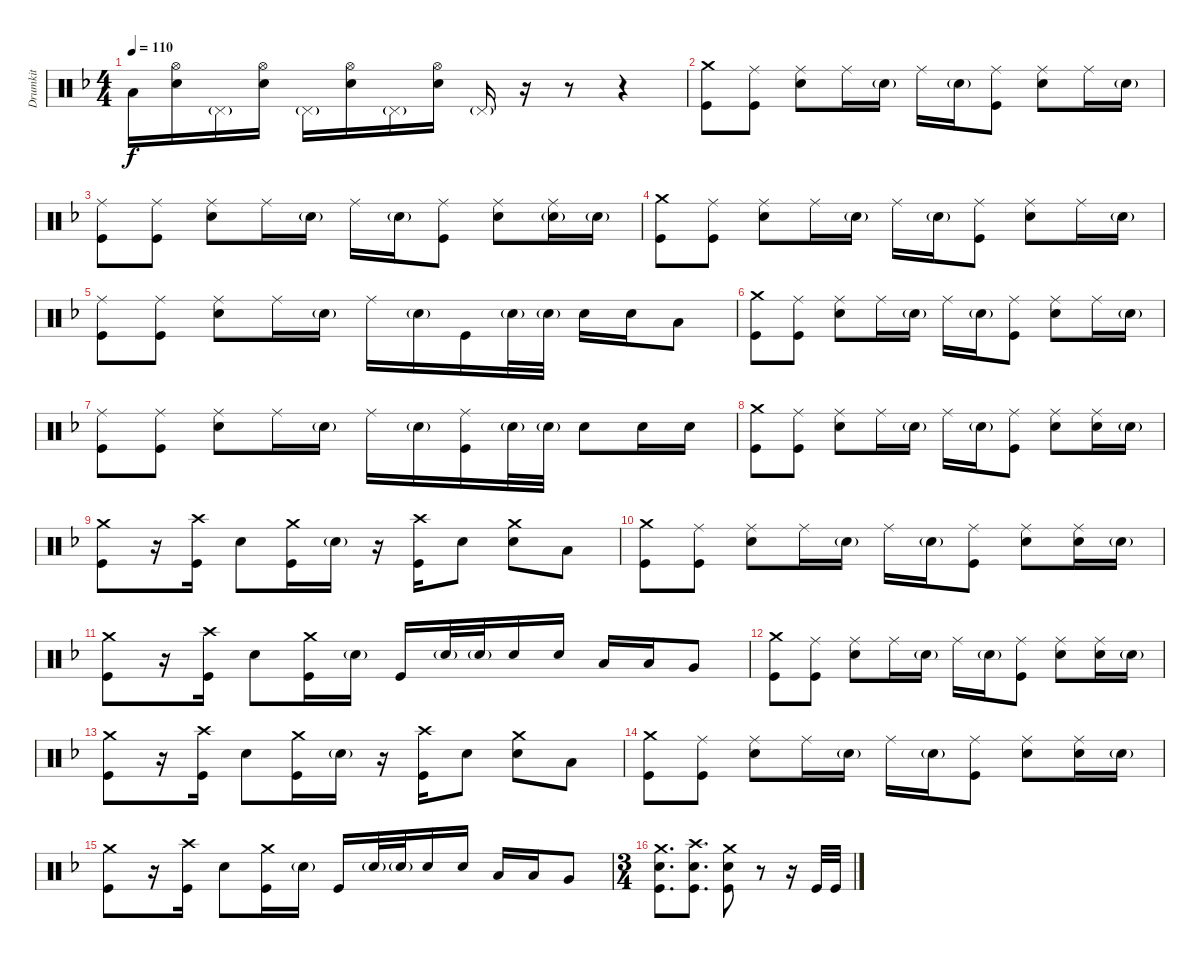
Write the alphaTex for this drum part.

\track ("Drumkit" "Drumkit") {instrument percussion}
\staff {score}
\articulation defaults
\ts (4 4)
\tempo 110
\clef neutral
\ks dminor "Low Floor Tom (hit)".16{dy f}
("Snare (hit) 2" "Hi-Hat (open)").16 "Pedal Hi-Hat (hit)"{g}.16 ("Snare (hit) 2" "Hi-Hat (open)").16 "Pedal Hi-Hat (hit)"{g}.16 ("Snare (hit) 2" "Hi-Hat (open)").16 "Pedal Hi-Hat (hit)"{g}.16 ("Snare (hit) 2" "Hi-Hat (open)").16 "Pedal Hi-Hat (hit)"{g}.16 r.16 r.8 r.4 |
("Kick (hit)" "Crash medium (hit)").8 ("Kick (hit)" "Ride (middle)").8 ("Snare (hit) 2" "Ride (middle)").8 "Ride (middle)".16 "Snare (hit) 2"{g}.16 "Ride (middle)".16 "Snare (hit) 2"{g}.16 ("Kick (hit)" "Ride (middle)").8 ("Snare (hit) 2" "Ride (middle)").8 "Ride (middle)".16 "Snare (hit) 2"{g}.16 |
("Kick (hit)" "Ride (middle)").8 ("Kick (hit)" "Ride (middle)").8 ("Snare (hit) 2" "Ride (middle)").8 "Ride (middle)".16 "Snare (hit) 2"{g}.16 "Ride (middle)".16 "Snare (hit) 2"{g}.16 ("Kick (hit)" "Ride (middle)").8 ("Snare (hit) 2" "Ride (middle)").8 ("Snare (hit) 2"{g} "Ride (middle)").16 "Snare (hit) 2"{g}.16 |
("Kick (hit)" "Crash medium (hit)").8 ("Kick (hit)" "Ride (middle)").8 ("Snare (hit) 2" "Ride (middle)").8 "Ride (middle)".16 "Snare (hit) 2"{g}.16 "Ride (middle)".16 "Snare (hit) 2"{g}.16 ("Kick (hit)" "Ride (middle)").8 ("Snare (hit) 2" "Ride (middle)").8 "Ride (middle)".16 "Snare (hit) 2"{g}.16 |
("Kick (hit)" "Ride (middle)").8 ("Kick (hit)" "Ride (middle)").8 ("Snare (hit) 2" "Ride (middle)").8 "Ride (middle)".16 "Snare (hit) 2"{g}.16 "Ride (middle)".16 "Snare (hit) 2"{g}.16 "Kick (hit)".16 "Snare (hit) 2"{g}.32 "Snare (hit) 2"{g}.32 "Snare (hit) 2".16 "Snare (hit) 2".16 "Low Tom (hit)".8 |
("Kick (hit)" "Crash medium (hit)").8 ("Kick (hit)" "Ride (middle)").8 ("Snare (hit) 2" "Ride (middle)").8 "Ride (middle)".16 "Snare (hit) 2"{g}.16 "Ride (middle)".16 "Snare (hit) 2"{g}.16 ("Kick (hit)" "Ride (middle)").8 ("Snare (hit) 2" "Ride (middle)").8 "Ride (middle)".16 "Snare (hit) 2"{g}.16 |
("Kick (hit)" "Ride (middle)").8 ("Kick (hit)" "Ride (middle)").8 ("Snare (hit) 2" "Ride (middle)").8 "Ride (middle)".16 "Snare (hit) 2"{g}.16 "Ride (middle)".16 "Snare (hit) 2"{g}.16 ("Kick (hit)" "Ride (middle)").16 "Snare (hit) 2"{g}.32 "Snare (hit) 2"{g}.32 "Snare (hit) 2".8 "Snare (hit) 2".16 "Snare (hit) 2".16 |
("Kick (hit)" "Crash medium (hit)").8 ("Kick (hit)" "Ride (middle)").8 ("Snare (hit) 2" "Ride (middle)").8 "Ride (middle)".16 "Snare (hit) 2"{g}.16 "Ride (middle)".16 "Snare (hit) 2"{g}.16 ("Kick (hit)" "Ride (middle)").8 ("Snare (hit) 2" "Ride (middle)").8 ("Ride (middle)" "Snare (hit) 2").16 "Snare (hit) 2"{g}.16 |
("Kick (hit)" "Crash medium (hit)").8 r.16 ("Kick (hit)" "Crash high (hit)").16 "Snare (hit) 2".8 ("Kick (hit)" "Crash medium (hit)").16 "Snare (hit) 2"{g}.16 r.16 ("Kick (hit)" "Crash high (hit)").16 "Snare (hit) 2".8 ("Snare (hit) 2" "Crash medium (hit)").8 "Low Tom (hit)".8 |
("Kick (hit)" "Crash medium (hit)").8 ("Kick (hit)" "Ride (middle)").8 ("Snare (hit) 2" "Ride (middle)").8 "Ride (middle)".16 "Snare (hit) 2"{g}.16 "Ride (middle)".16 "Snare (hit) 2"{g}.16 ("Kick (hit)" "Ride (middle)").8 ("Snare (hit) 2" "Ride (middle)").8 ("Ride (middle)" "Snare (hit) 2").16 "Snare (hit) 2"{g}.16 |
("Kick (hit)" "Crash medium (hit)").8 r.16 ("Kick (hit)" "Crash high (hit)").16 "Snare (hit) 2".8 ("Kick (hit)" "Crash medium (hit)").16 "Snare (hit) 2"{g}.16 "Kick (hit)".16 "Snare (hit) 2"{g}.32 "Snare (hit) 2"{g}.32 "Snare (hit) 2".16 "Snare (hit) 2".16 "Low Tom (hit)".16 "Low Tom (hit)".16 "Very Low Tom (hit)".8 |
("Kick (hit)" "Crash medium (hit)").8 ("Kick (hit)" "Ride (middle)").8 ("Snare (hit) 2" "Ride (middle)").8 "Ride (middle)".16 "Snare (hit) 2"{g}.16 "Ride (middle)".16 "Snare (hit) 2"{g}.16 ("Kick (hit)" "Ride (middle)").8 ("Snare (hit) 2" "Ride (middle)").8 ("Ride (middle)" "Snare (hit) 2").16 "Snare (hit) 2"{g}.16 |
("Kick (hit)" "Crash medium (hit)").8 r.16 ("Kick (hit)" "Crash high (hit)").16 "Snare (hit) 2".8 ("Kick (hit)" "Crash medium (hit)").16 "Snare (hit) 2"{g}.16 r.16 ("Kick (hit)" "Crash high (hit)").16 "Snare (hit) 2".8 ("Snare (hit) 2" "Crash medium (hit)").8 "Low Tom (hit)".8 |
("Kick (hit)" "Crash medium (hit)").8 ("Kick (hit)" "Ride (middle)").8 ("Snare (hit) 2" "Ride (middle)").8 "Ride (middle)".16 "Snare (hit) 2"{g}.16 "Ride (middle)".16 "Snare (hit) 2"{g}.16 ("Kick (hit)" "Ride (middle)").8 ("Snare (hit) 2" "Ride (middle)").8 ("Ride (middle)" "Snare (hit) 2").16 "Snare (hit) 2"{g}.16 |
("Kick (hit)" "Crash medium (hit)").8 r.16 ("Kick (hit)" "Crash high (hit)").16 "Snare (hit) 2".8 ("Kick (hit)" "Crash medium (hit)").16 "Snare (hit) 2"{g}.16 "Kick (hit)".16 "Snare (hit) 2"{g}.32 "Snare (hit) 2"{g}.32 "Snare (hit) 2".16 "Snare (hit) 2".16 "Low Tom (hit)".16 "Low Tom (hit)".16 "Very Low Tom (hit)".8 |
\ts (3 4)
("Kick (hit)" "Snare (hit) 2" "Crash medium (hit)").8{d} ("Kick (hit)" "Snare (hit) 2" "Crash high (hit)").8{d} ("Kick (hit)" "Snare (hit) 2" "Crash medium (hit)").8 r.8 r.16 "Kick (hit)".32 "Kick (hit)".32
